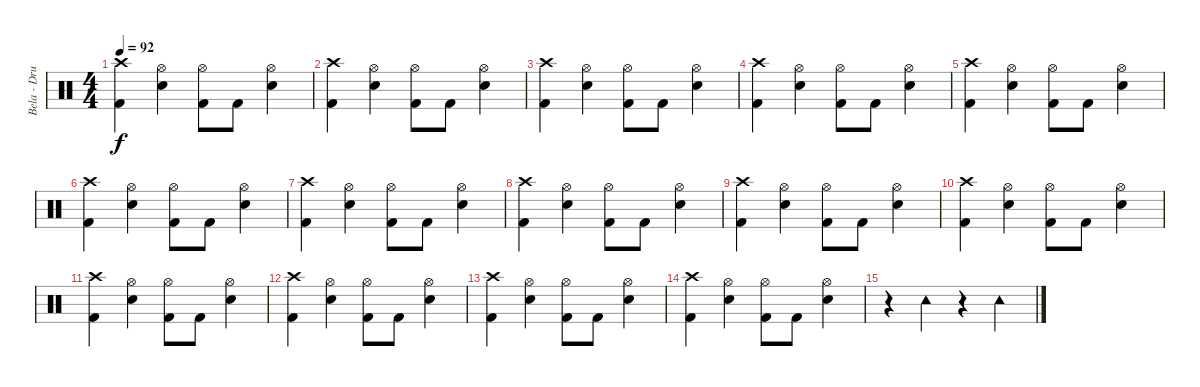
\track ("Bela - Drums" "Bela - Dru") {instrument percussion}
\staff {score}
\articulation defaults
\ts (4 4)
\tempo 92
\clef neutral
\ks c
("Crash high (hit)" "Kick (hit) 2").4{dy f} ("Hi-Hat (open)" "Snare (hit) 2").4 ("Hi-Hat (open)" "Kick (hit) 2").8 "Kick (hit) 2".8 ("Hi-Hat (open)" "Snare (hit) 2").4 |
("Crash high (hit)" "Kick (hit) 2").4 ("Hi-Hat (open)" "Snare (hit) 2").4 ("Hi-Hat (open)" "Kick (hit) 2").8 "Kick (hit) 2".8 ("Hi-Hat (open)" "Snare (hit) 2").4 |
("Crash high (hit)" "Kick (hit) 2").4 ("Hi-Hat (open)" "Snare (hit) 2").4 ("Hi-Hat (open)" "Kick (hit) 2").8 "Kick (hit) 2".8 ("Hi-Hat (open)" "Snare (hit) 2").4 |
("Crash high (hit)" "Kick (hit) 2").4 ("Hi-Hat (open)" "Snare (hit) 2").4 ("Hi-Hat (open)" "Kick (hit) 2").8 "Kick (hit) 2".8 ("Hi-Hat (open)" "Snare (hit) 2").4 |
("Crash high (hit)" "Kick (hit) 2").4 ("Hi-Hat (open)" "Snare (hit) 2").4 ("Hi-Hat (open)" "Kick (hit) 2").8 "Kick (hit) 2".8 ("Hi-Hat (open)" "Snare (hit) 2").4 |
("Crash high (hit)" "Kick (hit) 2").4 ("Hi-Hat (open)" "Snare (hit) 2").4 ("Hi-Hat (open)" "Kick (hit) 2").8 "Kick (hit) 2".8 ("Hi-Hat (open)" "Snare (hit) 2").4 |
("Crash high (hit)" "Kick (hit) 2").4 ("Hi-Hat (open)" "Snare (hit) 2").4 ("Hi-Hat (open)" "Kick (hit) 2").8 "Kick (hit) 2".8 ("Hi-Hat (open)" "Snare (hit) 2").4 |
("Crash high (hit)" "Kick (hit) 2").4 ("Hi-Hat (open)" "Snare (hit) 2").4 ("Hi-Hat (open)" "Kick (hit) 2").8 "Kick (hit) 2".8 ("Hi-Hat (open)" "Snare (hit) 2").4 |
("Crash high (hit)" "Kick (hit) 2").4 ("Hi-Hat (open)" "Snare (hit) 2").4 ("Hi-Hat (open)" "Kick (hit) 2").8 "Kick (hit) 2".8 ("Hi-Hat (open)" "Snare (hit) 2").4 |
("Crash high (hit)" "Kick (hit) 2").4 ("Hi-Hat (open)" "Snare (hit) 2").4 ("Hi-Hat (open)" "Kick (hit) 2").8 "Kick (hit) 2".8 ("Hi-Hat (open)" "Snare (hit) 2").4 |
("Crash high (hit)" "Kick (hit) 2").4 ("Hi-Hat (open)" "Snare (hit) 2").4 ("Hi-Hat (open)" "Kick (hit) 2").8 "Kick (hit) 2".8 ("Hi-Hat (open)" "Snare (hit) 2").4 |
("Crash high (hit)" "Kick (hit) 2").4 ("Hi-Hat (open)" "Snare (hit) 2").4 ("Hi-Hat (open)" "Kick (hit) 2").8 "Kick (hit) 2".8 ("Hi-Hat (open)" "Snare (hit) 2").4 |
("Crash high (hit)" "Kick (hit) 2").4 ("Hi-Hat (open)" "Snare (hit) 2").4 ("Hi-Hat (open)" "Kick (hit) 2").8 "Kick (hit) 2".8 ("Hi-Hat (open)" "Snare (hit) 2").4 |
("Crash high (hit)" "Kick (hit) 2").4 ("Hi-Hat (open)" "Snare (hit) 2").4 ("Hi-Hat (open)" "Kick (hit) 2").8 "Kick (hit) 2".8 ("Hi-Hat (open)" "Snare (hit) 2").4 |
r.4 "Tambourine (hit)".4 r.4 "Tambourine (hit)".4
